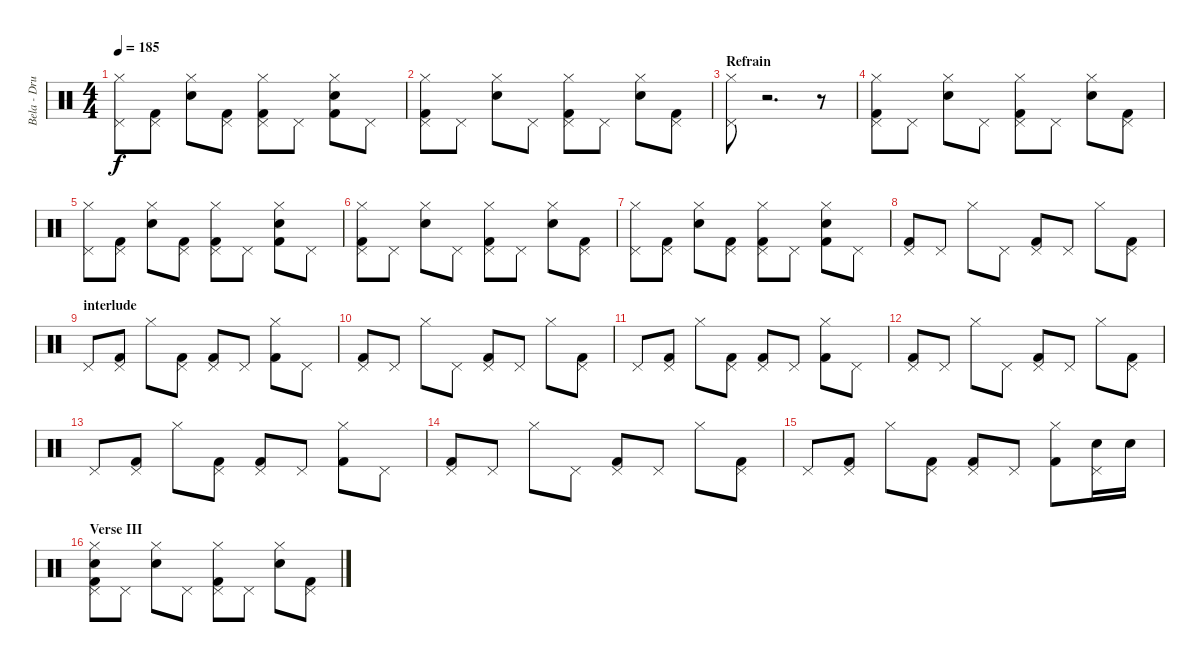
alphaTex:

\track ("Bela - Drums" "Bela - Dru") {instrument percussion}
\staff {score}
\articulation defaults
\ts (4 4)
\tempo 185
\clef neutral
\ks c
("Hi-Hat (closed)" "Pedal Hi-Hat (hit)").8{dy f} ("Kick (hit) 2" "Pedal Hi-Hat (hit)").8 ("Hi-Hat (closed)" "Electric Snare (hit)").8 ("Kick (hit) 2" "Pedal Hi-Hat (hit)").8 ("Kick (hit) 2" "Hi-Hat (closed)" "Pedal Hi-Hat (hit)").8 "Pedal Hi-Hat (hit)".8 ("Hi-Hat (closed)" "Kick (hit) 2" "Electric Snare (hit)").8 "Pedal Hi-Hat (hit)".8 |
("Hi-Hat (closed)" "Pedal Hi-Hat (hit)" "Kick (hit) 2").8 "Pedal Hi-Hat (hit)".8 ("Hi-Hat (closed)" "Electric Snare (hit)").8 "Pedal Hi-Hat (hit)".8 ("Hi-Hat (closed)" "Kick (hit) 2" "Pedal Hi-Hat (hit)").8 "Pedal Hi-Hat (hit)".8 ("Hi-Hat (closed)" "Electric Snare (hit)").8 ("Pedal Hi-Hat (hit)" "Kick (hit) 2").8 |
\section ("" "Refrain")
("Hi-Hat (closed)" "Pedal Hi-Hat (hit)").8 r.2{d} r.8 |
("Hi-Hat (closed)" "Pedal Hi-Hat (hit)" "Kick (hit) 2").8 "Pedal Hi-Hat (hit)".8 ("Hi-Hat (closed)" "Electric Snare (hit)").8 "Pedal Hi-Hat (hit)".8 ("Hi-Hat (closed)" "Kick (hit) 2" "Pedal Hi-Hat (hit)").8 "Pedal Hi-Hat (hit)".8 ("Hi-Hat (closed)" "Electric Snare (hit)").8 ("Pedal Hi-Hat (hit)" "Kick (hit) 2").8 |
("Pedal Hi-Hat (hit)" "Hi-Hat (closed)").8 ("Pedal Hi-Hat (hit)" "Kick (hit) 2").8 ("Hi-Hat (closed)" "Electric Snare (hit)").8 ("Pedal Hi-Hat (hit)" "Kick (hit) 2").8 ("Pedal Hi-Hat (hit)" "Hi-Hat (closed)" "Kick (hit) 2").8 "Pedal Hi-Hat (hit)".8 ("Hi-Hat (closed)" "Electric Snare (hit)" "Kick (hit) 2").8 "Pedal Hi-Hat (hit)".8 |
("Hi-Hat (closed)" "Pedal Hi-Hat (hit)" "Kick (hit) 2").8 "Pedal Hi-Hat (hit)".8 ("Hi-Hat (closed)" "Electric Snare (hit)").8 "Pedal Hi-Hat (hit)".8 ("Hi-Hat (closed)" "Kick (hit) 2" "Pedal Hi-Hat (hit)").8 "Pedal Hi-Hat (hit)".8 ("Hi-Hat (closed)" "Electric Snare (hit)").8 ("Pedal Hi-Hat (hit)" "Kick (hit) 2").8 |
("Pedal Hi-Hat (hit)" "Hi-Hat (closed)").8 ("Pedal Hi-Hat (hit)" "Kick (hit) 2").8 ("Hi-Hat (closed)" "Electric Snare (hit)").8 ("Pedal Hi-Hat (hit)" "Kick (hit) 2").8 ("Pedal Hi-Hat (hit)" "Hi-Hat (closed)" "Kick (hit) 2").8 "Pedal Hi-Hat (hit)".8 ("Hi-Hat (closed)" "Electric Snare (hit)" "Kick (hit) 2").8 "Pedal Hi-Hat (hit)".8 |
("Kick (hit) 2" "Pedal Hi-Hat (hit)").8 "Pedal Hi-Hat (hit)".8 "Hi-Hat (closed)".8 "Pedal Hi-Hat (hit)".8 ("Pedal Hi-Hat (hit)" "Kick (hit) 2").8 "Pedal Hi-Hat (hit)".8 "Hi-Hat (closed)".8 ("Pedal Hi-Hat (hit)" "Kick (hit) 2").8 |
\section ("" "interlude")
"Pedal Hi-Hat (hit)".8 ("Pedal Hi-Hat (hit)" "Kick (hit) 2").8 "Hi-Hat (closed)".8 ("Pedal Hi-Hat (hit)" "Kick (hit) 2").8 ("Kick (hit) 2" "Pedal Hi-Hat (hit)").8 "Pedal Hi-Hat (hit)".8 ("Hi-Hat (closed)" "Kick (hit) 2").8 "Pedal Hi-Hat (hit)".8 |
("Pedal Hi-Hat (hit)" "Kick (hit) 2").8 "Pedal Hi-Hat (hit)".8 "Hi-Hat (closed)".8 "Pedal Hi-Hat (hit)".8 ("Kick (hit) 2" "Pedal Hi-Hat (hit)").8 "Pedal Hi-Hat (hit)".8 "Hi-Hat (closed)".8 ("Pedal Hi-Hat (hit)" "Kick (hit) 2").8 |
"Pedal Hi-Hat (hit)".8 ("Kick (hit) 2" "Pedal Hi-Hat (hit)").8 "Hi-Hat (closed)".8 ("Kick (hit) 2" "Pedal Hi-Hat (hit)").8 ("Kick (hit) 2" "Pedal Hi-Hat (hit)").8 "Pedal Hi-Hat (hit)".8 ("Hi-Hat (closed)" "Kick (hit) 2").8 "Pedal Hi-Hat (hit)".8 |
("Kick (hit) 2" "Pedal Hi-Hat (hit)").8 "Pedal Hi-Hat (hit)".8 "Hi-Hat (closed)".8 "Pedal Hi-Hat (hit)".8 ("Pedal Hi-Hat (hit)" "Kick (hit) 2").8 "Pedal Hi-Hat (hit)".8 "Hi-Hat (closed)".8 ("Pedal Hi-Hat (hit)" "Kick (hit) 2").8 |
"Pedal Hi-Hat (hit)".8 ("Pedal Hi-Hat (hit)" "Kick (hit) 2").8 "Hi-Hat (closed)".8 ("Pedal Hi-Hat (hit)" "Kick (hit) 2").8 ("Kick (hit) 2" "Pedal Hi-Hat (hit)").8 "Pedal Hi-Hat (hit)".8 ("Hi-Hat (closed)" "Kick (hit) 2").8 "Pedal Hi-Hat (hit)".8 |
("Pedal Hi-Hat (hit)" "Kick (hit) 2").8 "Pedal Hi-Hat (hit)".8 "Hi-Hat (closed)".8 "Pedal Hi-Hat (hit)".8 ("Kick (hit) 2" "Pedal Hi-Hat (hit)").8 "Pedal Hi-Hat (hit)".8 "Hi-Hat (closed)".8 ("Pedal Hi-Hat (hit)" "Kick (hit) 2").8 |
"Pedal Hi-Hat (hit)".8 ("Kick (hit) 2" "Pedal Hi-Hat (hit)").8 "Hi-Hat (closed)".8 ("Kick (hit) 2" "Pedal Hi-Hat (hit)").8 ("Kick (hit) 2" "Pedal Hi-Hat (hit)").8 "Pedal Hi-Hat (hit)".8 ("Hi-Hat (closed)" "Kick (hit) 2").8 ("Pedal Hi-Hat (hit)" "Electric Snare (hit)").16 "Electric Snare (hit)".16 |
\section ("" "Verse III")
("Electric Snare (hit)" "Hi-Hat (closed)" "Pedal Hi-Hat (hit)" "Kick (hit) 2").8 "Pedal Hi-Hat (hit)".8 ("Hi-Hat (closed)" "Electric Snare (hit)").8 "Pedal Hi-Hat (hit)".8 ("Hi-Hat (closed)" "Kick (hit) 2" "Pedal Hi-Hat (hit)").8 "Pedal Hi-Hat (hit)".8 ("Hi-Hat (closed)" "Electric Snare (hit)").8 ("Pedal Hi-Hat (hit)" "Kick (hit) 2").8
